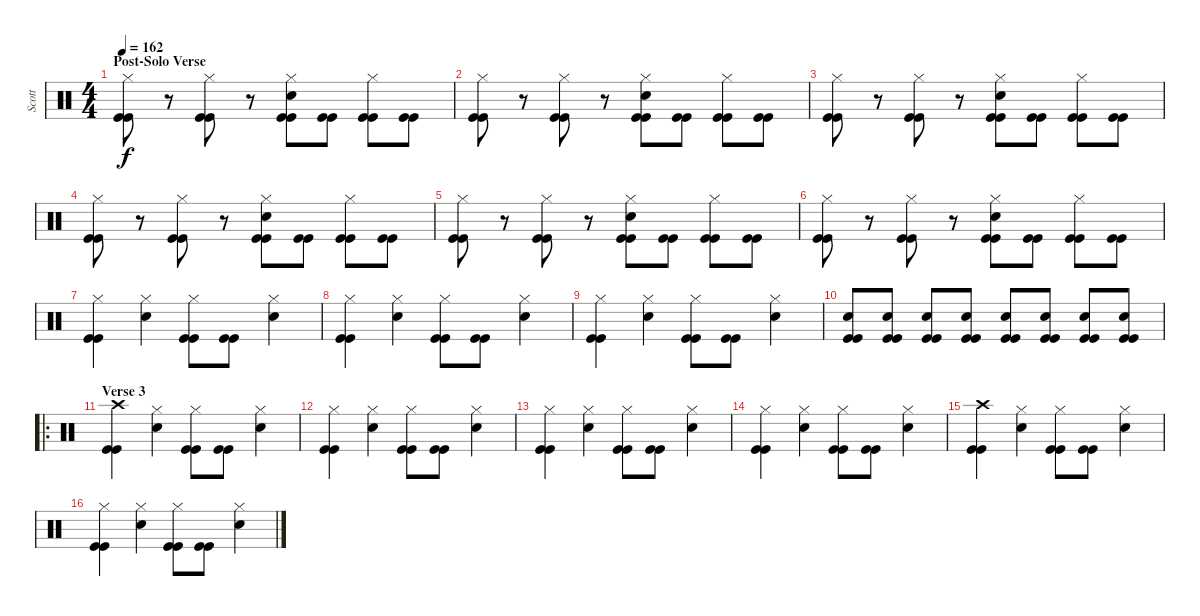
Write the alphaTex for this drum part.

\track ("Scott" "Scott") {instrument percussion}
\staff {score}
\articulation defaults
\ts (4 4)
\section ("" "Post-Solo Verse")
\tempo 162
\clef neutral
\ks c
("Hi-Hat (closed)" "Kick (hit)" "Kick (hit)").8{dy f} r.8 ("Hi-Hat (closed)" "Kick (hit)" "Kick (hit)").8 r.8 ("Hi-Hat (closed)" "Snare (hit) 2" "Kick (hit)" "Kick (hit)").8 ("Kick (hit)" "Kick (hit)").8 ("Hi-Hat (closed)" "Kick (hit)" "Kick (hit)").8 ("Kick (hit)" "Kick (hit)").8 |
("Hi-Hat (closed)" "Kick (hit)" "Kick (hit)").8 r.8 ("Hi-Hat (closed)" "Kick (hit)" "Kick (hit)").8 r.8 ("Hi-Hat (closed)" "Snare (hit) 2" "Kick (hit)" "Kick (hit)").8 ("Kick (hit)" "Kick (hit)").8 ("Hi-Hat (closed)" "Kick (hit)" "Kick (hit)").8 ("Kick (hit)" "Kick (hit)").8 |
("Hi-Hat (closed)" "Kick (hit)" "Kick (hit)").8 r.8 ("Hi-Hat (closed)" "Kick (hit)" "Kick (hit)").8 r.8 ("Hi-Hat (closed)" "Snare (hit) 2" "Kick (hit)" "Kick (hit)").8 ("Kick (hit)" "Kick (hit)").8 ("Hi-Hat (closed)" "Kick (hit)" "Kick (hit)").8 ("Kick (hit)" "Kick (hit)").8 |
("Hi-Hat (closed)" "Kick (hit)" "Kick (hit)").8 r.8 ("Hi-Hat (closed)" "Kick (hit)" "Kick (hit)").8 r.8 ("Hi-Hat (closed)" "Snare (hit) 2" "Kick (hit)" "Kick (hit)").8 ("Kick (hit)" "Kick (hit)").8 ("Hi-Hat (closed)" "Kick (hit)" "Kick (hit)").8 ("Kick (hit)" "Kick (hit)").8 |
("Hi-Hat (closed)" "Kick (hit)" "Kick (hit)").8 r.8 ("Hi-Hat (closed)" "Kick (hit)" "Kick (hit)").8 r.8 ("Hi-Hat (closed)" "Snare (hit) 2" "Kick (hit)" "Kick (hit)").8 ("Kick (hit)" "Kick (hit)").8 ("Hi-Hat (closed)" "Kick (hit)" "Kick (hit)").8 ("Kick (hit)" "Kick (hit)").8 |
("Hi-Hat (closed)" "Kick (hit)" "Kick (hit)").8 r.8 ("Hi-Hat (closed)" "Kick (hit)" "Kick (hit)").8 r.8 ("Hi-Hat (closed)" "Snare (hit) 2" "Kick (hit)" "Kick (hit)").8 ("Kick (hit)" "Kick (hit)").8 ("Hi-Hat (closed)" "Kick (hit)" "Kick (hit)").8 ("Kick (hit)" "Kick (hit)").8 |
("Hi-Hat (closed)" "Kick (hit)" "Kick (hit)").4 ("Hi-Hat (closed)" "Snare (hit) 2").4 ("Hi-Hat (closed)" "Kick (hit)" "Kick (hit)").8 ("Kick (hit)" "Kick (hit)").8 ("Hi-Hat (closed)" "Snare (hit) 2").4 |
("Hi-Hat (closed)" "Kick (hit)" "Kick (hit)").4 ("Hi-Hat (closed)" "Snare (hit) 2").4 ("Hi-Hat (closed)" "Kick (hit)" "Kick (hit)").8 ("Kick (hit)" "Kick (hit)").8 ("Hi-Hat (closed)" "Snare (hit) 2").4 |
("Hi-Hat (closed)" "Kick (hit)" "Kick (hit)").4 ("Hi-Hat (closed)" "Snare (hit) 2").4 ("Hi-Hat (closed)" "Kick (hit)" "Kick (hit)").8 ("Kick (hit)" "Kick (hit)").8 ("Hi-Hat (closed)" "Snare (hit) 2").4 |
("Snare (hit) 2" "Kick (hit)" "Kick (hit)").8 ("Snare (hit) 2" "Kick (hit)" "Kick (hit)").8 ("Snare (hit) 2" "Kick (hit)" "Kick (hit)").8 ("Snare (hit) 2" "Kick (hit)" "Kick (hit)").8 ("Snare (hit) 2" "Kick (hit)" "Kick (hit)").8 ("Snare (hit) 2" "Kick (hit)" "Kick (hit)").8 ("Snare (hit) 2" "Kick (hit)" "Kick (hit)").8 ("Snare (hit) 2" "Kick (hit)" "Kick (hit)").8 |
\ro
\section ("" "Verse 3")
("Crash high (hit)" "Kick (hit)" "Kick (hit)").4 ("Hi-Hat (closed)" "Snare (hit) 2").4 ("Hi-Hat (closed)" "Kick (hit)" "Kick (hit)").8 ("Kick (hit)" "Kick (hit)").8 ("Hi-Hat (closed)" "Snare (hit) 2").4 |
("Hi-Hat (closed)" "Kick (hit)" "Kick (hit)").4 ("Hi-Hat (closed)" "Snare (hit) 2").4 ("Hi-Hat (closed)" "Kick (hit)" "Kick (hit)").8 ("Kick (hit)" "Kick (hit)").8 ("Hi-Hat (closed)" "Snare (hit) 2").4 |
("Hi-Hat (closed)" "Kick (hit)" "Kick (hit)").4 ("Hi-Hat (closed)" "Snare (hit) 2").4 ("Hi-Hat (closed)" "Kick (hit)" "Kick (hit)").8 ("Kick (hit)" "Kick (hit)").8 ("Hi-Hat (closed)" "Snare (hit) 2").4 |
("Hi-Hat (closed)" "Kick (hit)" "Kick (hit)").4 ("Hi-Hat (closed)" "Snare (hit) 2").4 ("Hi-Hat (closed)" "Kick (hit)" "Kick (hit)").8 ("Kick (hit)" "Kick (hit)").8 ("Hi-Hat (closed)" "Snare (hit) 2").4 |
("Crash high (hit)" "Kick (hit)" "Kick (hit)").4 ("Hi-Hat (closed)" "Snare (hit) 2").4 ("Hi-Hat (closed)" "Kick (hit)" "Kick (hit)").8 ("Kick (hit)" "Kick (hit)").8 ("Hi-Hat (closed)" "Snare (hit) 2").4 |
("Hi-Hat (closed)" "Kick (hit)" "Kick (hit)").4 ("Hi-Hat (closed)" "Snare (hit) 2").4 ("Hi-Hat (closed)" "Kick (hit)" "Kick (hit)").8 ("Kick (hit)" "Kick (hit)").8 ("Hi-Hat (closed)" "Snare (hit) 2").4
